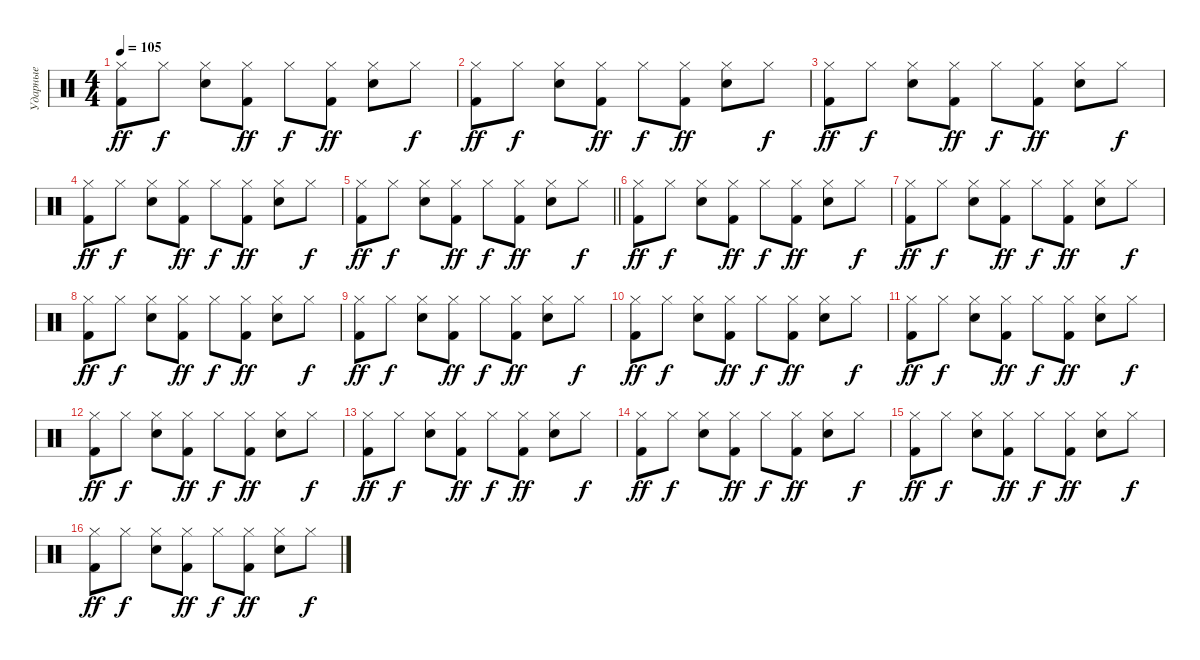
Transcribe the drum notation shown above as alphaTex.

\track ("Ударные" "Ударные") {solo instrument percussion}
\staff {score}
\articulation defaults
\ts (4 4)
\tempo 105
\clef neutral
\ks c
("Kick (hit) 2" "Hi-Hat (closed)").8{dy ff} "Hi-Hat (closed)".8{dy f} ("Snare (hit) 2" "Hi-Hat (closed)").8 ("Kick (hit) 2" "Hi-Hat (closed)").8{dy ff} "Hi-Hat (closed)".8{dy f} ("Kick (hit) 2" "Hi-Hat (closed)").8{dy ff} ("Snare (hit) 2" "Hi-Hat (closed)").8 "Hi-Hat (closed)".8{dy f} |
("Kick (hit) 2" "Hi-Hat (closed)").8{dy ff} "Hi-Hat (closed)".8{dy f} ("Snare (hit) 2" "Hi-Hat (closed)").8 ("Kick (hit) 2" "Hi-Hat (closed)").8{dy ff} "Hi-Hat (closed)".8{dy f} ("Kick (hit) 2" "Hi-Hat (closed)").8{dy ff} ("Snare (hit) 2" "Hi-Hat (closed)").8 "Hi-Hat (closed)".8{dy f} |
("Kick (hit) 2" "Hi-Hat (closed)").8{dy ff} "Hi-Hat (closed)".8{dy f} ("Snare (hit) 2" "Hi-Hat (closed)").8 ("Kick (hit) 2" "Hi-Hat (closed)").8{dy ff} "Hi-Hat (closed)".8{dy f} ("Kick (hit) 2" "Hi-Hat (closed)").8{dy ff} ("Snare (hit) 2" "Hi-Hat (closed)").8 "Hi-Hat (closed)".8{dy f} |
("Kick (hit) 2" "Hi-Hat (closed)").8{dy ff} "Hi-Hat (closed)".8{dy f} ("Snare (hit) 2" "Hi-Hat (closed)").8 ("Kick (hit) 2" "Hi-Hat (closed)").8{dy ff} "Hi-Hat (closed)".8{dy f} ("Kick (hit) 2" "Hi-Hat (closed)").8{dy ff} ("Snare (hit) 2" "Hi-Hat (closed)").8 "Hi-Hat (closed)".8{dy f} |
\barLineRight lightlight
("Kick (hit) 2" "Hi-Hat (closed)").8{dy ff} "Hi-Hat (closed)".8{dy f} ("Snare (hit) 2" "Hi-Hat (closed)").8 ("Kick (hit) 2" "Hi-Hat (closed)").8{dy ff} "Hi-Hat (closed)".8{dy f} ("Kick (hit) 2" "Hi-Hat (closed)").8{dy ff} ("Snare (hit) 2" "Hi-Hat (closed)").8 "Hi-Hat (closed)".8{dy f} |
\section ("" "")
("Kick (hit) 2" "Hi-Hat (closed)").8{dy ff} "Hi-Hat (closed)".8{dy f} ("Snare (hit) 2" "Hi-Hat (closed)").8 ("Kick (hit) 2" "Hi-Hat (closed)").8{dy ff} "Hi-Hat (closed)".8{dy f} ("Kick (hit) 2" "Hi-Hat (closed)").8{dy ff} ("Snare (hit) 2" "Hi-Hat (closed)").8 "Hi-Hat (closed)".8{dy f} |
("Kick (hit) 2" "Hi-Hat (closed)").8{dy ff} "Hi-Hat (closed)".8{dy f} ("Snare (hit) 2" "Hi-Hat (closed)").8 ("Kick (hit) 2" "Hi-Hat (closed)").8{dy ff} "Hi-Hat (closed)".8{dy f} ("Kick (hit) 2" "Hi-Hat (closed)").8{dy ff} ("Snare (hit) 2" "Hi-Hat (closed)").8 "Hi-Hat (closed)".8{dy f} |
("Kick (hit) 2" "Hi-Hat (closed)").8{dy ff} "Hi-Hat (closed)".8{dy f} ("Snare (hit) 2" "Hi-Hat (closed)").8 ("Kick (hit) 2" "Hi-Hat (closed)").8{dy ff} "Hi-Hat (closed)".8{dy f} ("Kick (hit) 2" "Hi-Hat (closed)").8{dy ff} ("Snare (hit) 2" "Hi-Hat (closed)").8 "Hi-Hat (closed)".8{dy f} |
("Kick (hit) 2" "Hi-Hat (closed)").8{dy ff} "Hi-Hat (closed)".8{dy f} ("Snare (hit) 2" "Hi-Hat (closed)").8 ("Kick (hit) 2" "Hi-Hat (closed)").8{dy ff} "Hi-Hat (closed)".8{dy f} ("Kick (hit) 2" "Hi-Hat (closed)").8{dy ff} ("Snare (hit) 2" "Hi-Hat (closed)").8 "Hi-Hat (closed)".8{dy f} |
("Kick (hit) 2" "Hi-Hat (closed)").8{dy ff} "Hi-Hat (closed)".8{dy f} ("Snare (hit) 2" "Hi-Hat (closed)").8 ("Kick (hit) 2" "Hi-Hat (closed)").8{dy ff} "Hi-Hat (closed)".8{dy f} ("Kick (hit) 2" "Hi-Hat (closed)").8{dy ff} ("Snare (hit) 2" "Hi-Hat (closed)").8 "Hi-Hat (closed)".8{dy f} |
("Kick (hit) 2" "Hi-Hat (closed)").8{dy ff} "Hi-Hat (closed)".8{dy f} ("Snare (hit) 2" "Hi-Hat (closed)").8 ("Kick (hit) 2" "Hi-Hat (closed)").8{dy ff} "Hi-Hat (closed)".8{dy f} ("Kick (hit) 2" "Hi-Hat (closed)").8{dy ff} ("Snare (hit) 2" "Hi-Hat (closed)").8 "Hi-Hat (closed)".8{dy f} |
("Kick (hit) 2" "Hi-Hat (closed)").8{dy ff} "Hi-Hat (closed)".8{dy f} ("Snare (hit) 2" "Hi-Hat (closed)").8 ("Kick (hit) 2" "Hi-Hat (closed)").8{dy ff} "Hi-Hat (closed)".8{dy f} ("Kick (hit) 2" "Hi-Hat (closed)").8{dy ff} ("Snare (hit) 2" "Hi-Hat (closed)").8 "Hi-Hat (closed)".8{dy f} |
("Kick (hit) 2" "Hi-Hat (closed)").8{dy ff} "Hi-Hat (closed)".8{dy f} ("Snare (hit) 2" "Hi-Hat (closed)").8 ("Kick (hit) 2" "Hi-Hat (closed)").8{dy ff} "Hi-Hat (closed)".8{dy f} ("Kick (hit) 2" "Hi-Hat (closed)").8{dy ff} ("Snare (hit) 2" "Hi-Hat (closed)").8 "Hi-Hat (closed)".8{dy f} |
("Kick (hit) 2" "Hi-Hat (closed)").8{dy ff} "Hi-Hat (closed)".8{dy f} ("Snare (hit) 2" "Hi-Hat (closed)").8 ("Kick (hit) 2" "Hi-Hat (closed)").8{dy ff} "Hi-Hat (closed)".8{dy f} ("Kick (hit) 2" "Hi-Hat (closed)").8{dy ff} ("Snare (hit) 2" "Hi-Hat (closed)").8 "Hi-Hat (closed)".8{dy f} |
("Kick (hit) 2" "Hi-Hat (closed)").8{dy ff} "Hi-Hat (closed)".8{dy f} ("Snare (hit) 2" "Hi-Hat (closed)").8 ("Kick (hit) 2" "Hi-Hat (closed)").8{dy ff} "Hi-Hat (closed)".8{dy f} ("Kick (hit) 2" "Hi-Hat (closed)").8{dy ff} ("Snare (hit) 2" "Hi-Hat (closed)").8 "Hi-Hat (closed)".8{dy f} |
("Kick (hit) 2" "Hi-Hat (closed)").8{dy ff} "Hi-Hat (closed)".8{dy f} ("Snare (hit) 2" "Hi-Hat (closed)").8 ("Kick (hit) 2" "Hi-Hat (closed)").8{dy ff} "Hi-Hat (closed)".8{dy f} ("Kick (hit) 2" "Hi-Hat (closed)").8{dy ff} ("Snare (hit) 2" "Hi-Hat (closed)").8 "Hi-Hat (closed)".8{dy f}
